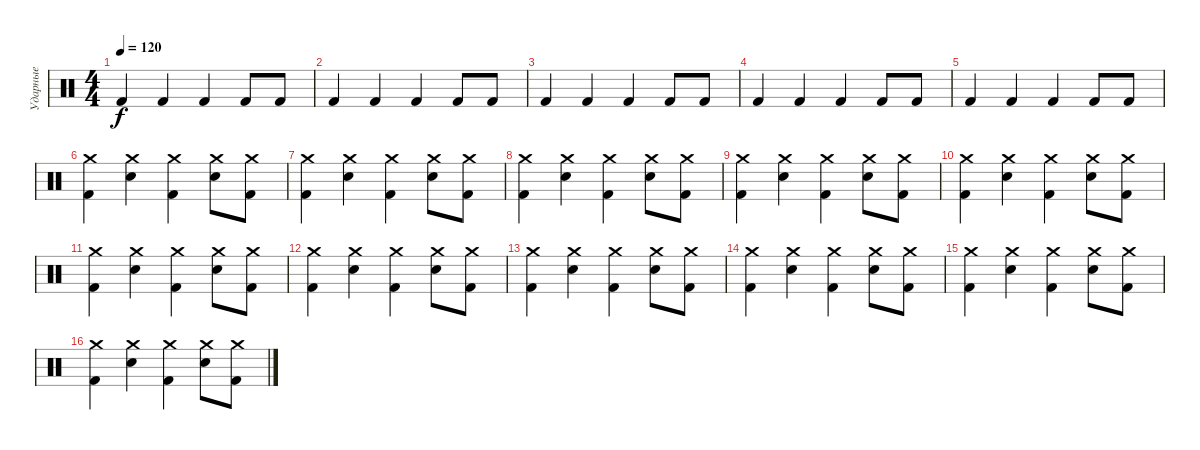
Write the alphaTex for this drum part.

\track ("Ударные" "Ударные") {instrument percussion}
\staff {score}
\articulation defaults
\ts (4 4)
\tempo 120
\clef neutral
\ks c "Kick (hit) 2".4{dy f} "Kick (hit) 2".4 "Kick (hit) 2".4 "Kick (hit) 2".8 "Kick (hit) 2".8
|
"Kick (hit) 2".4 "Kick (hit) 2".4 "Kick (hit) 2".4 "Kick (hit) 2".8 "Kick (hit) 2".8 |
"Kick (hit) 2".4 "Kick (hit) 2".4 "Kick (hit) 2".4 "Kick (hit) 2".8 "Kick (hit) 2".8 |
"Kick (hit) 2".4 "Kick (hit) 2".4 "Kick (hit) 2".4 "Kick (hit) 2".8 "Kick (hit) 2".8 |
"Kick (hit) 2".4 "Kick (hit) 2".4 "Kick (hit) 2".4 "Kick (hit) 2".8 "Kick (hit) 2".8 |
("Crash medium (hit)" "Kick (hit) 2").4 ("Crash medium (hit)" "Electric Snare (hit)").4 ("Crash medium (hit)" "Kick (hit) 2").4 ("Crash medium (hit)" "Electric Snare (hit)").8 ("Crash medium (hit)" "Kick (hit) 2").8 |
("Crash medium (hit)" "Kick (hit) 2").4 ("Crash medium (hit)" "Electric Snare (hit)").4 ("Crash medium (hit)" "Kick (hit) 2").4 ("Crash medium (hit)" "Electric Snare (hit)").8 ("Crash medium (hit)" "Kick (hit) 2").8 |
("Crash medium (hit)" "Kick (hit) 2").4 ("Crash medium (hit)" "Electric Snare (hit)").4 ("Crash medium (hit)" "Kick (hit) 2").4 ("Crash medium (hit)" "Electric Snare (hit)").8 ("Crash medium (hit)" "Kick (hit) 2").8 |
("Crash medium (hit)" "Kick (hit) 2").4 ("Crash medium (hit)" "Electric Snare (hit)").4 ("Crash medium (hit)" "Kick (hit) 2").4 ("Crash medium (hit)" "Electric Snare (hit)").8 ("Crash medium (hit)" "Kick (hit) 2").8 |
("Crash medium (hit)" "Kick (hit) 2").4 ("Crash medium (hit)" "Electric Snare (hit)").4 ("Crash medium (hit)" "Kick (hit) 2").4 ("Crash medium (hit)" "Electric Snare (hit)").8 ("Crash medium (hit)" "Kick (hit) 2").8 |
("Crash medium (hit)" "Kick (hit) 2").4 ("Crash medium (hit)" "Electric Snare (hit)").4 ("Crash medium (hit)" "Kick (hit) 2").4 ("Crash medium (hit)" "Electric Snare (hit)").8 ("Crash medium (hit)" "Kick (hit) 2").8 |
("Crash medium (hit)" "Kick (hit) 2").4 ("Crash medium (hit)" "Electric Snare (hit)").4 ("Crash medium (hit)" "Kick (hit) 2").4 ("Crash medium (hit)" "Electric Snare (hit)").8 ("Crash medium (hit)" "Kick (hit) 2").8 |
("Crash medium (hit)" "Kick (hit) 2").4 ("Crash medium (hit)" "Electric Snare (hit)").4 ("Crash medium (hit)" "Kick (hit) 2").4 ("Crash medium (hit)" "Electric Snare (hit)").8 ("Crash medium (hit)" "Kick (hit) 2").8 |
("Crash medium (hit)" "Kick (hit) 2").4 ("Crash medium (hit)" "Electric Snare (hit)").4 ("Crash medium (hit)" "Kick (hit) 2").4 ("Crash medium (hit)" "Electric Snare (hit)").8 ("Crash medium (hit)" "Kick (hit) 2").8 |
("Crash medium (hit)" "Kick (hit) 2").4 ("Crash medium (hit)" "Electric Snare (hit)").4 ("Crash medium (hit)" "Kick (hit) 2").4 ("Crash medium (hit)" "Electric Snare (hit)").8 ("Crash medium (hit)" "Kick (hit) 2").8 |
("Crash medium (hit)" "Kick (hit) 2").4 ("Crash medium (hit)" "Electric Snare (hit)").4 ("Crash medium (hit)" "Kick (hit) 2").4 ("Crash medium (hit)" "Electric Snare (hit)").8 ("Crash medium (hit)" "Kick (hit) 2").8
